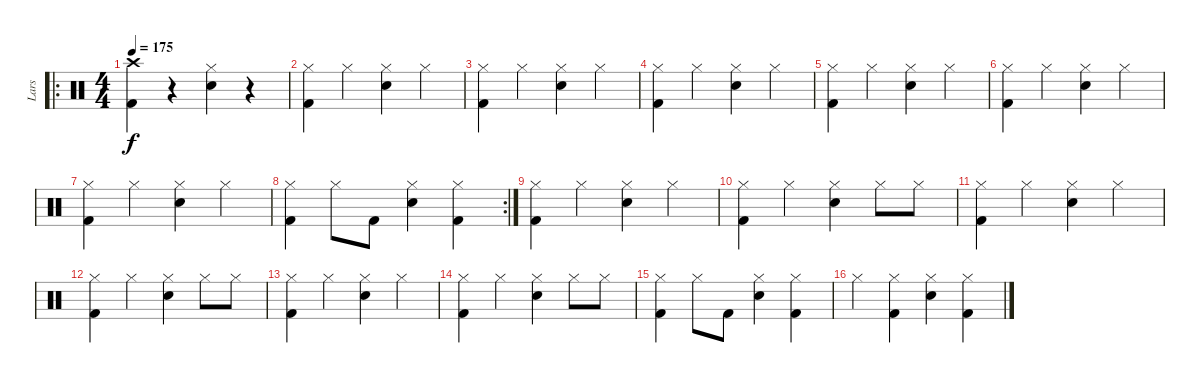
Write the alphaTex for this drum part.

\track ("Lars" "Lars") {instrument percussion}
\staff {score}
\articulation defaults
\ro
\ts (4 4)
\tempo 175
\clef neutral
\ks c
("Crash high (hit)" "Kick (hit) 2").4{dy f} r.4 ("Hi-Hat (closed)" "Electric Snare (hit)").4 r.4 |
("Hi-Hat (closed)" "Kick (hit) 2").4 "Hi-Hat (closed)".4 ("Hi-Hat (closed)" "Electric Snare (hit)").4 "Hi-Hat (closed)".4 |
("Hi-Hat (closed)" "Kick (hit) 2").4 "Hi-Hat (closed)".4 ("Hi-Hat (closed)" "Electric Snare (hit)").4 "Hi-Hat (closed)".4 |
("Hi-Hat (closed)" "Kick (hit) 2").4 "Hi-Hat (closed)".4 ("Hi-Hat (closed)" "Electric Snare (hit)").4 "Hi-Hat (closed)".4 |
("Hi-Hat (closed)" "Kick (hit) 2").4 "Hi-Hat (closed)".4 ("Hi-Hat (closed)" "Electric Snare (hit)").4 "Hi-Hat (closed)".4 |
("Hi-Hat (closed)" "Kick (hit) 2").4 "Hi-Hat (closed)".4 ("Hi-Hat (closed)" "Electric Snare (hit)").4 "Hi-Hat (closed)".4 |
("Hi-Hat (closed)" "Kick (hit) 2").4 "Hi-Hat (closed)".4 ("Hi-Hat (closed)" "Electric Snare (hit)").4 "Hi-Hat (closed)".4 |
\rc 2
("Hi-Hat (closed)" "Kick (hit) 2").4 "Hi-Hat (closed)".8 "Kick (hit) 2".8 ("Hi-Hat (closed)" "Electric Snare (hit)").4 ("Hi-Hat (closed)" "Kick (hit) 2").4 |
("Hi-Hat (closed)" "Kick (hit) 2").4 "Hi-Hat (closed)".4 ("Hi-Hat (closed)" "Electric Snare (hit)").4 "Hi-Hat (closed)".4 |
("Hi-Hat (closed)" "Kick (hit) 2").4 "Hi-Hat (closed)".4 ("Hi-Hat (closed)" "Electric Snare (hit)").4 "Hi-Hat (closed)".8 "Hi-Hat (closed)".8 |
("Hi-Hat (closed)" "Kick (hit) 2").4 "Hi-Hat (closed)".4 ("Hi-Hat (closed)" "Electric Snare (hit)").4 "Hi-Hat (closed)".4 |
("Hi-Hat (closed)" "Kick (hit) 2").4 "Hi-Hat (closed)".4 ("Hi-Hat (closed)" "Electric Snare (hit)").4 "Hi-Hat (closed)".8 "Hi-Hat (closed)".8 |
("Hi-Hat (closed)" "Kick (hit) 2").4 "Hi-Hat (closed)".4 ("Hi-Hat (closed)" "Electric Snare (hit)").4 "Hi-Hat (closed)".4 |
("Hi-Hat (closed)" "Kick (hit) 2").4 "Hi-Hat (closed)".4 ("Hi-Hat (closed)" "Electric Snare (hit)").4 "Hi-Hat (closed)".8 "Hi-Hat (closed)".8 |
("Hi-Hat (closed)" "Kick (hit) 2").4 "Hi-Hat (closed)".8 "Kick (hit) 2".8 ("Hi-Hat (closed)" "Electric Snare (hit)").4 ("Hi-Hat (closed)" "Kick (hit) 2").4 |
"Hi-Hat (closed)".4 ("Hi-Hat (closed)" "Kick (hit) 2").4 ("Hi-Hat (closed)" "Electric Snare (hit)").4 ("Hi-Hat (closed)" "Kick (hit) 2").4
